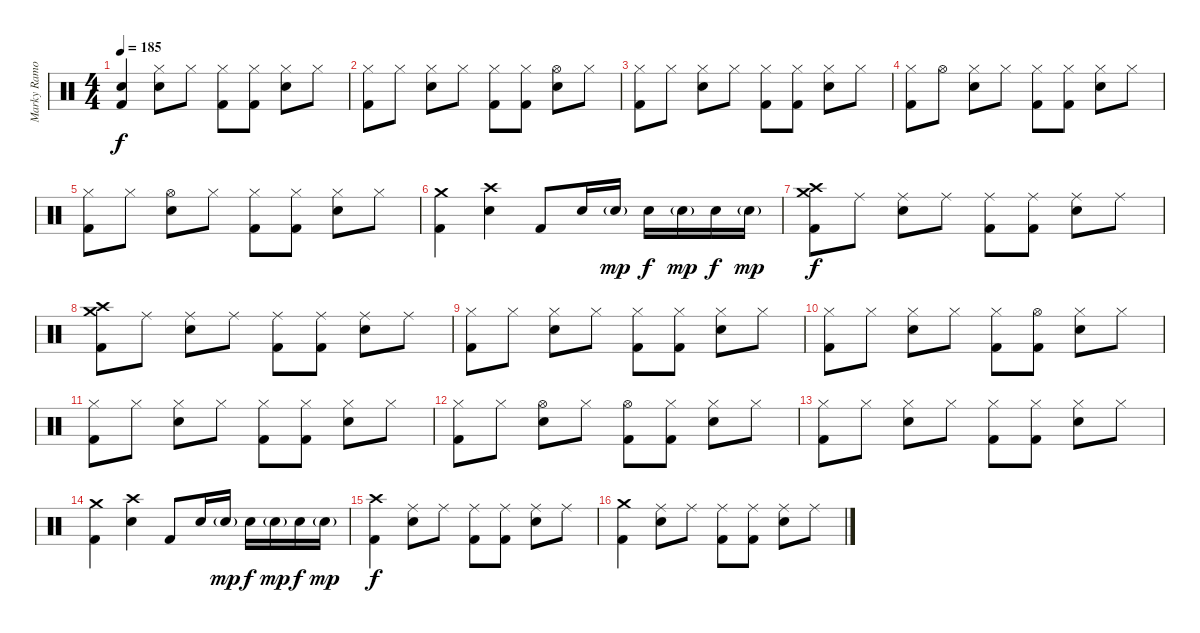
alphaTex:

\track ("Marky Ramone" "Marky Ramo") {instrument percussion}
\staff {score}
\articulation defaults
\ts (4 4)
\tempo 185
\clef neutral
\ks c
("Snare (hit)"{t} "Kick (hit) 2").4{dy f} ("Hi-Hat (closed)" "Electric Snare (hit)").8 "Hi-Hat (closed)".8 ("Hi-Hat (closed)" "Kick (hit) 2").8 ("Hi-Hat (closed)" "Kick (hit) 2").8 ("Hi-Hat (closed)" "Electric Snare (hit)").8 "Hi-Hat (closed)".8 |
("Hi-Hat (closed)" "Kick (hit) 2").8 "Hi-Hat (closed)".8 ("Hi-Hat (closed)" "Electric Snare (hit)").8 "Hi-Hat (closed)".8 ("Hi-Hat (closed)" "Kick (hit) 2").8 ("Hi-Hat (closed)" "Kick (hit) 2").8 ("Hi-Hat (open)" "Electric Snare (hit)").8 "Hi-Hat (closed)".8 |
("Hi-Hat (closed)" "Kick (hit) 2").8 "Hi-Hat (closed)".8 ("Hi-Hat (closed)" "Electric Snare (hit)").8 "Hi-Hat (closed)".8 ("Hi-Hat (closed)" "Kick (hit) 2").8 ("Hi-Hat (closed)" "Kick (hit) 2").8 ("Hi-Hat (closed)" "Electric Snare (hit)").8 "Hi-Hat (closed)".8 |
("Hi-Hat (closed)" "Kick (hit) 2").8 "Hi-Hat (open)".8 ("Hi-Hat (closed)" "Electric Snare (hit)").8 "Hi-Hat (closed)".8 ("Hi-Hat (closed)" "Kick (hit) 2").8 ("Hi-Hat (closed)" "Kick (hit) 2").8 ("Hi-Hat (closed)" "Electric Snare (hit)").8 "Hi-Hat (closed)".8 |
("Hi-Hat (closed)" "Kick (hit) 2").8 "Hi-Hat (closed)".8 ("Hi-Hat (open)" "Electric Snare (hit)").8 "Hi-Hat (closed)".8 ("Hi-Hat (closed)" "Kick (hit) 2").8 ("Hi-Hat (closed)" "Kick (hit) 2").8 ("Hi-Hat (closed)" "Electric Snare (hit)").8 "Hi-Hat (closed)".8 |
("Crash medium (hit)" "Kick (hit) 2").4 ("Crash high (hit)" "Electric Snare (hit)").4 "Kick (hit) 2".8 "Electric Snare (hit)".16 "Electric Snare (hit)"{g}.16{dy mp} "Electric Snare (hit)".16{dy f} "Electric Snare (hit)"{g}.16{dy mp} "Electric Snare (hit)".16{dy f} "Electric Snare (hit)"{g}.16{dy mp} |
("Crash medium (hit)" "Crash high (hit)" "Kick (hit) 2").8{dy f} "Ride (middle)".8 ("Ride (middle)" "Electric Snare (hit)").8 "Ride (middle)".8 ("Ride (middle)" "Kick (hit) 2").8 ("Ride (middle)" "Kick (hit) 2").8 ("Ride (middle)" "Electric Snare (hit)").8 "Ride (middle)".8 |
("Crash medium (hit)" "Crash high (hit)" "Kick (hit) 2").8 "Ride (middle)".8 ("Ride (middle)" "Electric Snare (hit)").8 "Ride (middle)".8 ("Ride (middle)" "Kick (hit) 2").8 ("Ride (middle)" "Kick (hit) 2").8 ("Ride (middle)" "Electric Snare (hit)").8 "Ride (middle)".8 |
("Hi-Hat (closed)" "Kick (hit) 2").8 "Hi-Hat (closed)".8 ("Hi-Hat (closed)" "Electric Snare (hit)").8 "Hi-Hat (closed)".8 ("Hi-Hat (closed)" "Kick (hit) 2").8 ("Hi-Hat (closed)" "Kick (hit) 2").8 ("Hi-Hat (closed)" "Electric Snare (hit)").8 "Hi-Hat (closed)".8 |
("Hi-Hat (closed)" "Kick (hit) 2").8 "Hi-Hat (closed)".8 ("Hi-Hat (closed)" "Electric Snare (hit)").8 "Hi-Hat (closed)".8 ("Hi-Hat (closed)" "Kick (hit) 2").8 ("Hi-Hat (open)" "Kick (hit) 2").8 ("Hi-Hat (closed)" "Electric Snare (hit)").8 "Hi-Hat (closed)".8 |
("Hi-Hat (closed)" "Kick (hit) 2").8 "Hi-Hat (closed)".8 ("Hi-Hat (closed)" "Electric Snare (hit)").8 "Hi-Hat (closed)".8 ("Hi-Hat (closed)" "Kick (hit) 2").8 ("Hi-Hat (closed)" "Kick (hit) 2").8 ("Hi-Hat (closed)" "Electric Snare (hit)").8 "Hi-Hat (closed)".8 |
("Hi-Hat (closed)" "Kick (hit) 2").8 "Hi-Hat (closed)".8 ("Hi-Hat (open)" "Electric Snare (hit)").8 "Hi-Hat (closed)".8 ("Hi-Hat (open)" "Kick (hit) 2").8 ("Hi-Hat (closed)" "Kick (hit) 2").8 ("Hi-Hat (closed)" "Electric Snare (hit)").8 "Hi-Hat (closed)".8 |
("Hi-Hat (closed)" "Kick (hit) 2").8 "Hi-Hat (closed)".8 ("Hi-Hat (closed)" "Electric Snare (hit)").8 "Hi-Hat (closed)".8 ("Hi-Hat (closed)" "Kick (hit) 2").8 ("Hi-Hat (closed)" "Kick (hit) 2").8 ("Hi-Hat (closed)" "Electric Snare (hit)").8 "Hi-Hat (closed)".8 |
("Crash medium (hit)" "Kick (hit) 2").4 ("Crash high (hit)" "Electric Snare (hit)").4 "Kick (hit) 2".8 "Electric Snare (hit)".16 "Electric Snare (hit)"{g}.16{dy mp} "Electric Snare (hit)".16{dy f} "Electric Snare (hit)"{g}.16{dy mp} "Electric Snare (hit)".16{dy f} "Electric Snare (hit)"{g}.16{dy mp} |
("Crash high (hit)" "Kick (hit) 2").4{dy f} ("Ride (middle)" "Electric Snare (hit)").8 "Ride (middle)".8 ("Ride (middle)" "Kick (hit) 2").8 ("Ride (middle)" "Kick (hit) 2").8 ("Ride (middle)" "Electric Snare (hit)").8 "Ride (middle)".8 |
("Crash medium (hit)" "Kick (hit) 2").4 ("Ride (middle)" "Electric Snare (hit)").8 "Ride (middle)".8 ("Ride (middle)" "Kick (hit) 2").8 ("Ride (middle)" "Kick (hit) 2").8 ("Ride (middle)" "Electric Snare (hit)").8 "Ride (middle)".8
